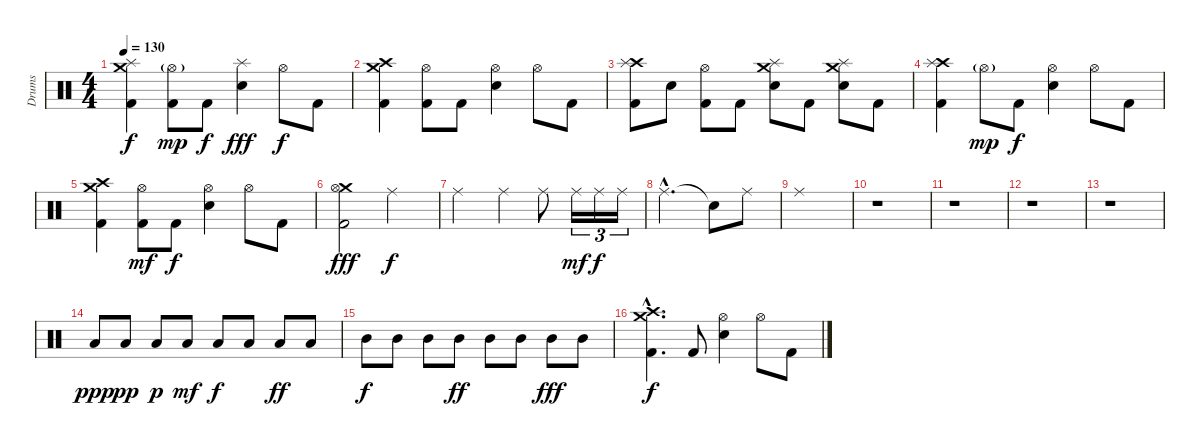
\track ("Drums" "Drums") {instrument percussion}
\staff {score}
\articulation defaults
\ts (4 4)
\tempo 130
\clef neutral
\ks c
("Crash medium (hit)" "Splash (hit)" "Kick (hit) 2").4{dy f} ("Hi-Hat (open)"{g} "Kick (hit) 2").8{dy mp} "Kick (hit) 2".8{dy f} ("Splash (hit)" "Snare (hit) 2").4{dy fff} "Hi-Hat (open)".8{dy f} "Kick (hit) 2".8 |
("Crash medium (hit)" "Crash high (hit)" "Kick (hit) 2").4 ("Hi-Hat (open)" "Kick (hit) 2").8 "Kick (hit) 2".8 ("Hi-Hat (open)" "Snare (hit) 2").4 "Hi-Hat (open)".8 "Kick (hit) 2".8 |
("Crash high (hit)" "Splash (hit)" "Kick (hit) 2").8 "Snare (hit) 2".8 ("Hi-Hat (open)" "Kick (hit) 2").8 "Kick (hit) 2".8 ("Crash medium (hit)" "Splash (hit)" "Snare (hit) 2").8 "Kick (hit) 2".8 ("Crash medium (hit)" "Splash (hit)" "Snare (hit) 2").8 "Kick (hit) 2".8 |
("Crash high (hit)" "Splash (hit)" "Kick (hit) 2").4 "Hi-Hat (open)"{g}.8{dy mp} "Kick (hit) 2".8{dy f} ("Hi-Hat (open)" "Snare (hit) 2").4 "Hi-Hat (open)".8 "Kick (hit) 2".8 |
("Crash medium (hit)" "Crash high (hit)" "Kick (hit) 2").4 ("Hi-Hat (open)" "Kick (hit) 2").8{dy mf} "Kick (hit) 2".8{dy f} ("Hi-Hat (open)" "Snare (hit) 2").4 "Hi-Hat (open)".8 "Kick (hit) 2".8 |
("Crash medium (hit)" "Hi-Hat (open)" "Kick (hit) 2").2{dy fff} "Ride (middle)".2{dy f} |
"Ride (middle)".2 "Ride (middle)".4 "Ride (middle)".8 "Ride (middle)".16{tu (3 2) dy mf} "Ride (middle)".16{tu (3 2) dy f} "Ride (middle)".16{tu (3 2)} |
"Ride (middle)"{hac}.2{d} "Snare (hit)"{t}.8 "Ride (middle)".8 |
"Ride (middle)".1 |
r.1 |
r.1 |
r.1 |
r.1 |
"Low Tom (hit)".8{dy ppp} "Low Tom (hit)".8{dy pp} "Low Tom (hit)".8{dy p} "Low Tom (hit)".8{dy mf} "Low Tom (hit)".8{dy f} "Low Tom (hit)".8 "Low Tom (hit)".8{dy ff} "Low Tom (hit)".8 |
"Mid Tom (hit)".8{dy f} "Mid Tom (hit)".8 "Mid Tom (hit)".8 "Mid Tom (hit)".8{dy ff} "Mid Tom (hit)".8 "Mid Tom (hit)".8 "Mid Tom (hit)".8{dy fff} "Mid Tom (hit)".8 |
("Crash medium (hit)"{hac} "Crash high (hit)"{hac} "Kick (hit) 2"{hac}).4{d dy f} "Kick (hit) 2".8 ("Hi-Hat (open)" "Snare (hit) 2").4 "Hi-Hat (open)".8 "Kick (hit) 2".8
